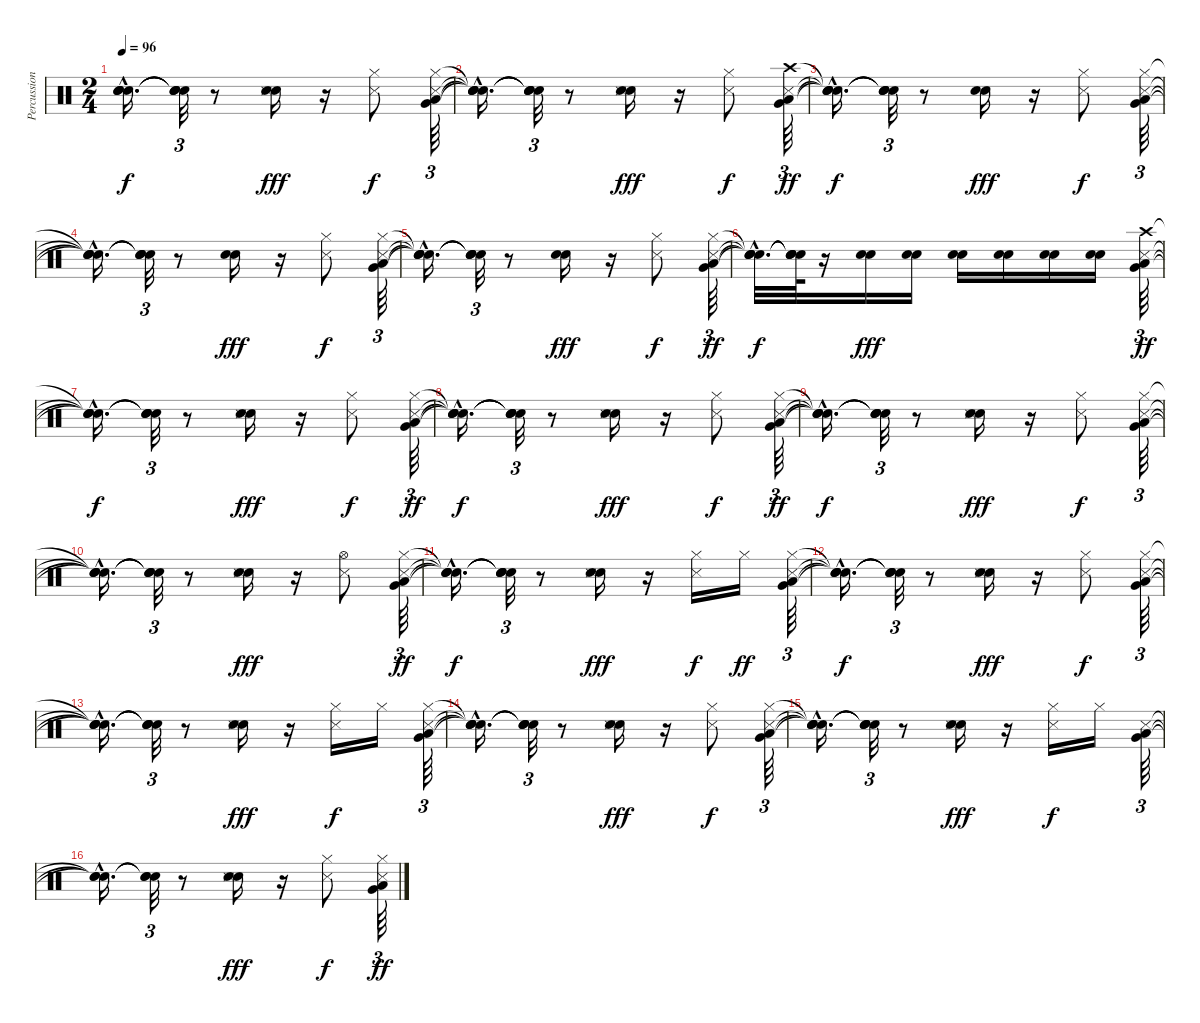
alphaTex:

\track ("Percussion" "Percussion") {instrument percussion}
\staff {score}
\articulation defaults
\ts (2 4)
\tempo 96
\clef neutral
\ks c
("Snare (hit)"{hac t} "Snare (hit)"{hac t} "Snare (hit)"{hac t} "Snare (hit)"{hac t}).16{d dy f} ("Snare (hit)"{t} "Snare (hit)"{t} "Snare (hit)"{t} "Snare (hit)"{t}).32{tu (3 2)} r.8 ("Electric Snare (hit)" "Snare (side stick) 3" "Snare (hit) 2").16{dy fff} r.16 ("Hi-Hat (closed)" "Snare (side stick) 3").8{dy f} ("Hi-Hat (closed)" "Snare (side stick) 3" "Very Low Tom (hit)" "Low Floor Tom (hit)").64{tu (3 2)} |
("Snare (hit)"{hac t} "Snare (hit)"{hac t} "Snare (hit)"{hac t} "Snare (hit)"{hac t}).16{d} ("Snare (hit)"{t} "Snare (hit)"{t} "Snare (hit)"{t} "Snare (hit)"{t}).32{tu (3 2)} r.8 ("Electric Snare (hit)" "Snare (side stick) 3" "Snare (hit) 2").16{dy fff} r.16 ("Hi-Hat (closed)" "Snare (side stick) 3").8{dy f} ("Crash high (hit)" "Snare (side stick) 3" "Very Low Tom (hit)" "Low Floor Tom (hit)").64{tu (3 2) dy ff} |
("Snare (hit)"{hac t} "Snare (hit)"{hac t} "Snare (hit)"{hac t} "Snare (hit)"{hac t}).16{d dy f} ("Snare (hit)"{t} "Snare (hit)"{t} "Snare (hit)"{t} "Snare (hit)"{t}).32{tu (3 2)} r.8 ("Electric Snare (hit)" "Snare (hit) 2").16{dy fff} r.16 ("Hi-Hat (closed)" "Snare (side stick) 3").8{dy f} ("Hi-Hat (closed)" "Snare (side stick) 3" "Very Low Tom (hit)" "Low Floor Tom (hit)").64{tu (3 2)} |
("Snare (hit)"{hac t} "Snare (hit)"{hac t} "Snare (hit)"{hac t} "Snare (hit)"{hac t}).16{d} ("Snare (hit)"{t} "Snare (hit)"{t} "Snare (hit)"{t} "Snare (hit)"{t}).32{tu (3 2)} r.8 ("Electric Snare (hit)" "Snare (hit) 2").16{dy fff} r.16 ("Hi-Hat (closed)" "Snare (side stick) 3").8{dy f} ("Hi-Hat (closed)" "Snare (side stick) 3" "Very Low Tom (hit)" "Low Floor Tom (hit)").64{tu (3 2)} |
("Snare (hit)"{hac t} "Snare (hit)"{hac t} "Snare (hit)"{hac t} "Snare (hit)"{hac t}).16{d} ("Snare (hit)"{t} "Snare (hit)"{t} "Snare (hit)"{t} "Snare (hit)"{t}).32{tu (3 2)} r.8 ("Electric Snare (hit)" "Snare (hit) 2").16{dy fff} r.16 ("Hi-Hat (closed)" "Snare (side stick) 3").8{dy f} ("Hi-Hat (closed)" "Snare (side stick) 3" "Very Low Tom (hit)" "Low Floor Tom (hit)").64{tu (3 2) dy ff} |
("Snare (hit)"{hac t} "Snare (hit)"{hac t} "Snare (hit)"{hac t} "Snare (hit)"{hac t}).32{d dy f} ("Snare (hit)"{t} "Snare (hit)"{t} "Snare (hit)"{t} "Snare (hit)"{t}).64 r.16 ("Electric Snare (hit)" "Snare (hit) 2").16{dy fff} ("Electric Snare (hit)" "Snare (hit) 2").16 ("Electric Snare (hit)" "Snare (hit) 2").16 ("Electric Snare (hit)" "Snare (hit) 2").16 ("Electric Snare (hit)" "Snare (hit) 2").16 ("Electric Snare (hit)" "Snare (hit) 2").16 ("Crash high (hit)" "Snare (side stick) 3" "Very Low Tom (hit)" "Low Floor Tom (hit)").64{tu (3 2) dy ff} |
("Snare (hit)"{hac t} "Snare (hit)"{hac t} "Snare (hit)"{hac t} "Snare (hit)"{hac t}).16{d dy f} ("Snare (hit)"{t} "Snare (hit)"{t} "Snare (hit)"{t} "Snare (hit)"{t}).32{tu (3 2)} r.8 ("Electric Snare (hit)" "Snare (side stick) 3" "Snare (hit) 2").16{dy fff} r.16 ("Hi-Hat (closed)" "Snare (side stick) 3").8{dy f} ("Hi-Hat (closed)" "Snare (side stick) 3" "Very Low Tom (hit)" "Low Floor Tom (hit)").64{tu (3 2) dy ff} |
("Snare (hit)"{hac t} "Snare (hit)"{hac t} "Snare (hit)"{hac t} "Snare (hit)"{hac t}).16{d dy f} ("Snare (hit)"{t} "Snare (hit)"{t} "Snare (hit)"{t} "Snare (hit)"{t}).32{tu (3 2)} r.8 ("Electric Snare (hit)" "Snare (side stick) 3" "Snare (hit) 2").16{dy fff} r.16 ("Hi-Hat (closed)" "Snare (side stick) 3").8{dy f} ("Hi-Hat (closed)" "Snare (side stick) 3" "Very Low Tom (hit)" "Low Floor Tom (hit)").64{tu (3 2) dy ff} |
("Snare (hit)"{hac t} "Snare (hit)"{hac t} "Snare (hit)"{hac t} "Snare (hit)"{hac t}).16{d dy f} ("Snare (hit)"{t} "Snare (hit)"{t} "Snare (hit)"{t} "Snare (hit)"{t}).32{tu (3 2)} r.8 ("Electric Snare (hit)" "Snare (side stick) 3" "Snare (hit) 2").16{dy fff} r.16 ("Hi-Hat (closed)" "Snare (side stick) 3").8{dy f} ("Hi-Hat (closed)" "Snare (side stick) 3" "Very Low Tom (hit)" "Low Floor Tom (hit)").64{tu (3 2)} |
("Snare (hit)"{hac t} "Snare (hit)"{hac t} "Snare (hit)"{hac t} "Snare (hit)"{hac t}).16{d} ("Snare (hit)"{t} "Snare (hit)"{t} "Snare (hit)"{t} "Snare (hit)"{t}).32{tu (3 2)} r.8 ("Electric Snare (hit)" "Snare (side stick) 3" "Snare (hit) 2").16{dy fff} r.16 ("Hi-Hat (open)" "Snare (side stick) 3").8 ("Hi-Hat (closed)" "Snare (side stick) 3" "Very Low Tom (hit)" "Low Floor Tom (hit)").64{tu (3 2) dy ff} |
("Snare (hit)"{hac t} "Snare (hit)"{hac t} "Snare (hit)"{hac t} "Snare (hit)"{hac t}).16{d dy f} ("Snare (hit)"{t} "Snare (hit)"{t} "Snare (hit)"{t} "Snare (hit)"{t}).32{tu (3 2)} r.8 ("Electric Snare (hit)" "Snare (side stick) 3" "Snare (hit) 2").16{dy fff} r.16 ("Hi-Hat (closed)" "Snare (side stick) 3").16{dy f} "Hi-Hat (closed)".16{dy ff} ("Hi-Hat (closed)" "Snare (side stick) 3" "Very Low Tom (hit)" "Low Floor Tom (hit)").64{tu (3 2)} |
("Snare (hit)"{hac t} "Snare (hit)"{hac t} "Snare (hit)"{hac t} "Snare (hit)"{hac t}).16{d dy f} ("Snare (hit)"{t} "Snare (hit)"{t} "Snare (hit)"{t} "Snare (hit)"{t}).32{tu (3 2)} r.8 ("Electric Snare (hit)" "Snare (side stick) 3" "Snare (hit) 2").16{dy fff} r.16 ("Hi-Hat (closed)" "Snare (side stick) 3").8{dy f} ("Hi-Hat (closed)" "Snare (side stick) 3" "Very Low Tom (hit)" "Low Floor Tom (hit)").64{tu (3 2)} |
("Snare (hit)"{hac t} "Snare (hit)"{hac t} "Snare (hit)"{hac t} "Snare (hit)"{hac t}).16{d} ("Snare (hit)"{t} "Snare (hit)"{t} "Snare (hit)"{t} "Snare (hit)"{t}).32{tu (3 2)} r.8 ("Electric Snare (hit)" "Snare (side stick) 3" "Snare (hit) 2").16{dy fff} r.16 ("Hi-Hat (closed)" "Snare (side stick) 3").16{dy f} "Hi-Hat (closed)".16 ("Hi-Hat (closed)" "Snare (side stick) 3" "Very Low Tom (hit)" "Low Floor Tom (hit)").64{tu (3 2)} |
("Snare (hit)"{hac t} "Snare (hit)"{hac t} "Snare (hit)"{hac t} "Snare (hit)"{hac t}).16{d} ("Snare (hit)"{t} "Snare (hit)"{t} "Snare (hit)"{t} "Snare (hit)"{t}).32{tu (3 2)} r.8 ("Electric Snare (hit)" "Snare (side stick) 3" "Snare (hit) 2").16{dy fff} r.16 ("Hi-Hat (closed)" "Snare (side stick) 3").8{dy f} ("Hi-Hat (closed)" "Snare (side stick) 3" "Very Low Tom (hit)" "Low Floor Tom (hit)").64{tu (3 2)} |
("Snare (hit)"{hac t} "Snare (hit)"{hac t} "Snare (hit)"{hac t} "Snare (hit)"{hac t}).16{d} ("Snare (hit)"{t} "Snare (hit)"{t} "Snare (hit)"{t} "Snare (hit)"{t}).32{tu (3 2)} r.8 ("Electric Snare (hit)" "Snare (side stick) 3" "Snare (hit) 2").16{dy fff} r.16 ("Hi-Hat (closed)" "Snare (side stick) 3").16{dy f} "Hi-Hat (closed)".16 ("Snare (side stick) 3" "Very Low Tom (hit)" "Low Floor Tom (hit)").64{tu (3 2)} |
("Snare (hit)"{hac t} "Snare (hit)"{hac t} "Snare (hit)"{hac t}).16{d} ("Snare (hit)"{t} "Snare (hit)"{t} "Snare (hit)"{t}).32{tu (3 2)} r.8 ("Electric Snare (hit)" "Snare (side stick) 3" "Snare (hit) 2").16{dy fff} r.16 ("Hi-Hat (closed)" "Snare (side stick) 3").8{dy f} ("Hi-Hat (closed)" "Snare (side stick) 3" "Very Low Tom (hit)" "Low Floor Tom (hit)").64{tu (3 2) dy ff}
